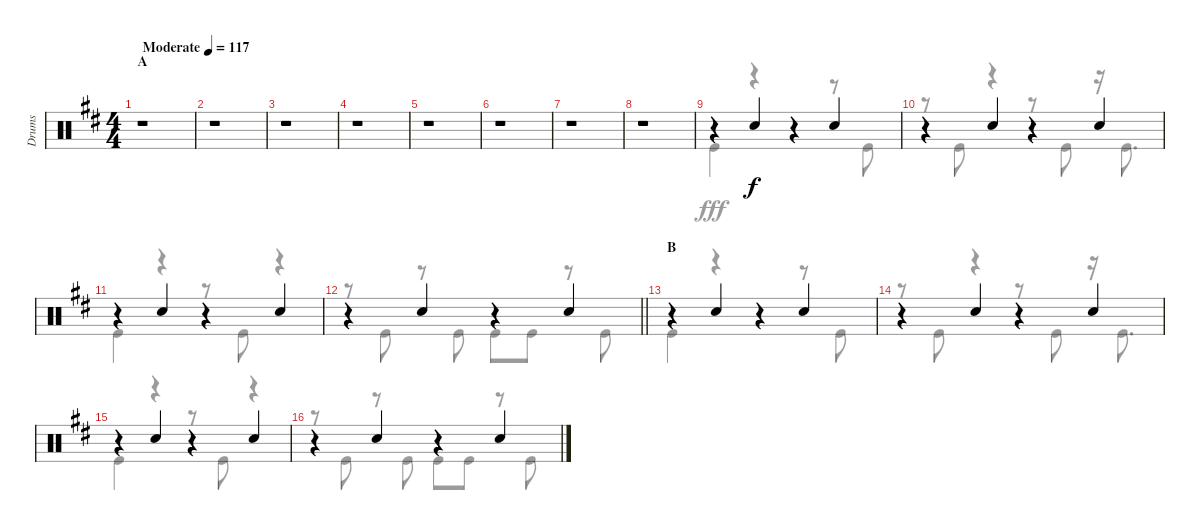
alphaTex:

\track ("Drums" "Drums") {instrument percussion}
\staff {score}
\articulation defaults
\voice
\ts (4 4)
\section ("" "A")
\tempo (117 "Moderate")
\clef neutral
\ks d
r.1{dy f} |
r.1 |
r.1 |
r.1 |
r.1 |
r.1 |
r.1 |
r.1 |
r.4 "Snare (hit) 2".4 r.4 "Snare (hit) 2".4 |
r.4 "Snare (hit) 2".4 r.4 "Snare (hit) 2".4 |
r.4 "Snare (hit) 2".4 r.4 "Snare (hit) 2".4 |
\barLineRight lightlight
r.4 "Snare (hit) 2".4 r.4 "Snare (hit) 2".4 |
\section ("" "B")
r.4 "Snare (hit) 2".4 r.4 "Snare (hit) 2".4 |
r.4 "Snare (hit) 2".4 r.4 "Snare (hit) 2".4 |
r.4 "Snare (hit) 2".4 r.4 "Snare (hit) 2".4 |
r.4 "Snare (hit) 2".4 r.4 "Snare (hit) 2".4
\voice
\clef neutral
\ottava regular
\simile none
\ks d
r.1{dy fff} |
r.1 |
r.1 |
r.1 |
r.1 |
r.1 |
r.1 |
r.1 |
"Kick (hit)".4 r.4 r.4 r.8 "Kick (hit)".8 |
r.8 "Kick (hit)".8 r.4 r.8 "Kick (hit)".8 r.16 "Kick (hit)".8{d} |
"Kick (hit)".4 r.4 r.8 "Kick (hit)".8 r.4 |
\barLineRight lightlight
r.8 "Kick (hit)".8 r.8 "Kick (hit)".8 "Kick (hit)".8 "Kick (hit)".8 r.8 "Kick (hit)".8 |
"Kick (hit)".4 r.4 r.4 r.8 "Kick (hit)".8 |
r.8 "Kick (hit)".8 r.4 r.8 "Kick (hit)".8 r.16 "Kick (hit)".8{d} |
"Kick (hit)".4 r.4 r.8 "Kick (hit)".8 r.4 |
r.8 "Kick (hit)".8 r.8 "Kick (hit)".8 "Kick (hit)".8 "Kick (hit)".8 r.8 "Kick (hit)".8
